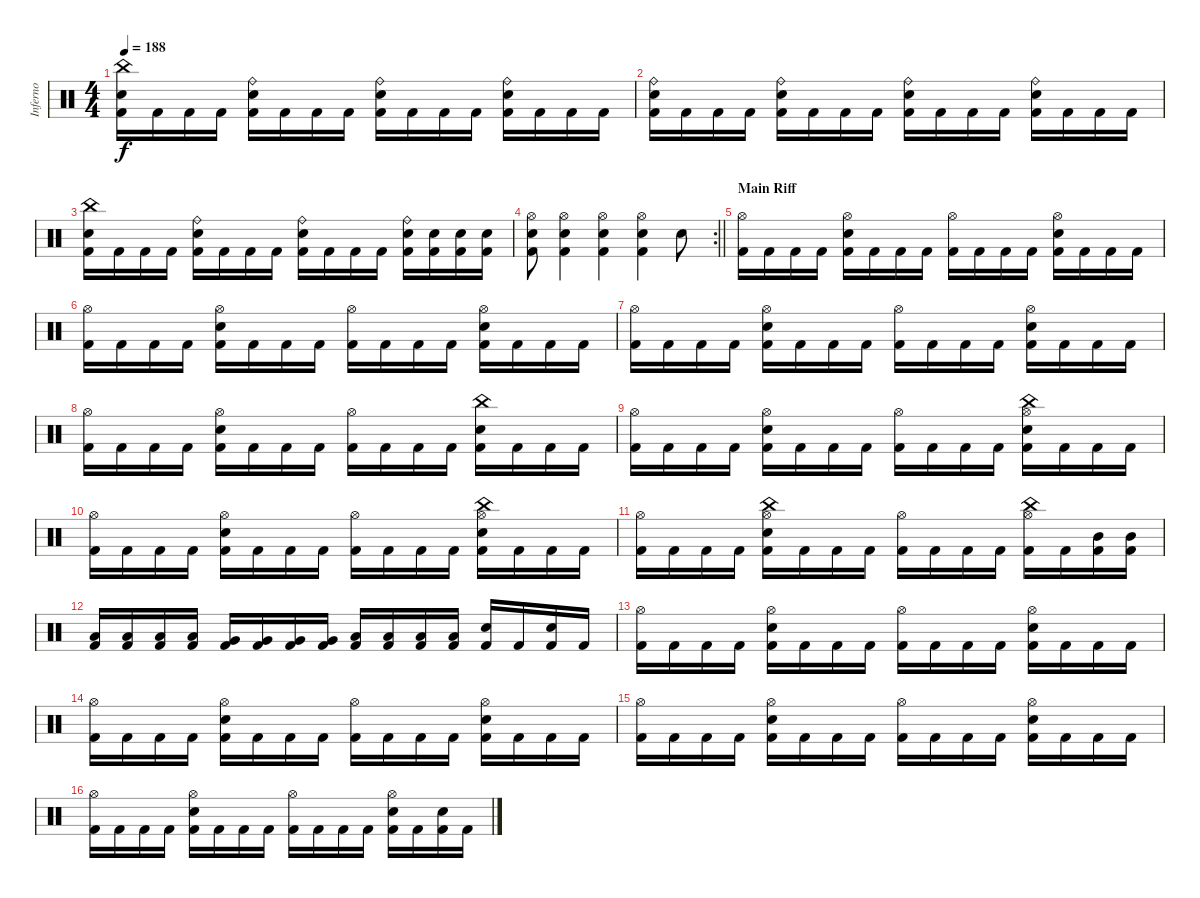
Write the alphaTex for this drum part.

\track ("Inferno" "Inferno") {instrument percussion}
\staff {score}
\articulation defaults
\ts (4 4)
\tempo 188
\clef neutral
\ks c
("China (hit)" "Snare (hit) 2" "Kick (hit) 2").16{dy f} "Kick (hit) 2".16 "Kick (hit) 2".16 "Kick (hit) 2".16 ("Ride (bell)" "Snare (hit) 2" "Kick (hit) 2").16 "Kick (hit) 2".16 "Kick (hit) 2".16 "Kick (hit) 2".16 ("Ride (bell)" "Snare (hit) 2" "Kick (hit) 2").16 "Kick (hit) 2".16 "Kick (hit) 2".16 "Kick (hit) 2".16 ("Ride (bell)" "Snare (hit) 2" "Kick (hit) 2").16 "Kick (hit) 2".16 "Kick (hit) 2".16 "Kick (hit) 2".16 |
("Ride (bell)" "Snare (hit) 2" "Kick (hit) 2").16 "Kick (hit) 2".16 "Kick (hit) 2".16 "Kick (hit) 2".16 ("Ride (bell)" "Snare (hit) 2" "Kick (hit) 2").16 "Kick (hit) 2".16 "Kick (hit) 2".16 "Kick (hit) 2".16 ("Ride (bell)" "Snare (hit) 2" "Kick (hit) 2").16 "Kick (hit) 2".16 "Kick (hit) 2".16 "Kick (hit) 2".16 ("Ride (bell)" "Snare (hit) 2" "Kick (hit) 2").16 "Kick (hit) 2".16 "Kick (hit) 2".16 "Kick (hit) 2".16 |
("China (hit)" "Snare (hit) 2" "Kick (hit) 2").16 "Kick (hit) 2".16 "Kick (hit) 2".16 "Kick (hit) 2".16 ("Ride (bell)" "Snare (hit) 2" "Kick (hit) 2").16 "Kick (hit) 2".16 "Kick (hit) 2".16 "Kick (hit) 2".16 ("Ride (bell)" "Snare (hit) 2" "Kick (hit) 2").16 "Kick (hit) 2".16 "Kick (hit) 2".16 "Kick (hit) 2".16 ("Ride (bell)" "Snare (hit) 2" "Kick (hit) 2").16 ("Snare (hit) 2" "Kick (hit) 2").16 ("Snare (hit) 2" "Kick (hit) 2").16 ("Snare (hit) 2" "Kick (hit) 2").16 |
\rc 2
\barLineRight lightlight
("Hi-Hat (open)" "Snare (hit) 2" "Kick (hit) 2").8 ("Hi-Hat (open)" "Snare (hit) 2" "Kick (hit) 2").4 ("Hi-Hat (open)" "Snare (hit) 2" "Kick (hit) 2").4 ("Hi-Hat (open)" "Snare (hit) 2" "Kick (hit) 2").4 "Snare (hit) 2".8 |
\section ("" "Main Riff")
("Hi-Hat (open)" "Kick (hit) 2").16 "Kick (hit) 2".16 "Kick (hit) 2".16 "Kick (hit) 2".16 ("Hi-Hat (open)" "Snare (hit) 2" "Kick (hit) 2").16 "Kick (hit) 2".16 "Kick (hit) 2".16 "Kick (hit) 2".16 ("Hi-Hat (open)" "Kick (hit) 2").16 "Kick (hit) 2".16 "Kick (hit) 2".16 "Kick (hit) 2".16 ("Hi-Hat (open)" "Snare (hit) 2" "Kick (hit) 2").16 "Kick (hit) 2".16 "Kick (hit) 2".16 "Kick (hit) 2".16 |
("Hi-Hat (open)" "Kick (hit) 2").16 "Kick (hit) 2".16 "Kick (hit) 2".16 "Kick (hit) 2".16 ("Hi-Hat (open)" "Snare (hit) 2" "Kick (hit) 2").16 "Kick (hit) 2".16 "Kick (hit) 2".16 "Kick (hit) 2".16 ("Hi-Hat (open)" "Kick (hit) 2").16 "Kick (hit) 2".16 "Kick (hit) 2".16 "Kick (hit) 2".16 ("Hi-Hat (open)" "Snare (hit) 2" "Kick (hit) 2").16 "Kick (hit) 2".16 "Kick (hit) 2".16 "Kick (hit) 2".16 |
("Hi-Hat (open)" "Kick (hit) 2").16 "Kick (hit) 2".16 "Kick (hit) 2".16 "Kick (hit) 2".16 ("Hi-Hat (open)" "Snare (hit) 2" "Kick (hit) 2").16 "Kick (hit) 2".16 "Kick (hit) 2".16 "Kick (hit) 2".16 ("Hi-Hat (open)" "Kick (hit) 2").16 "Kick (hit) 2".16 "Kick (hit) 2".16 "Kick (hit) 2".16 ("Hi-Hat (open)" "Snare (hit) 2" "Kick (hit) 2").16 "Kick (hit) 2".16 "Kick (hit) 2".16 "Kick (hit) 2".16 |
("Hi-Hat (open)" "Kick (hit) 2").16 "Kick (hit) 2".16 "Kick (hit) 2".16 "Kick (hit) 2".16 ("Hi-Hat (open)" "Snare (hit) 2" "Kick (hit) 2").16 "Kick (hit) 2".16 "Kick (hit) 2".16 "Kick (hit) 2".16 ("Hi-Hat (open)" "Kick (hit) 2").16 "Kick (hit) 2".16 "Kick (hit) 2".16 "Kick (hit) 2".16 ("China (hit)" "Snare (hit) 2" "Kick (hit) 2").16 "Kick (hit) 2".16 "Kick (hit) 2".16 "Kick (hit) 2".16 |
("Hi-Hat (open)" "Kick (hit) 2").16 "Kick (hit) 2".16 "Kick (hit) 2".16 "Kick (hit) 2".16 ("Hi-Hat (open)" "Snare (hit) 2" "Kick (hit) 2").16 "Kick (hit) 2".16 "Kick (hit) 2".16 "Kick (hit) 2".16 ("Hi-Hat (open)" "Kick (hit) 2").16 "Kick (hit) 2".16 "Kick (hit) 2".16 "Kick (hit) 2".16 ("China (hit)" "Hi-Hat (open)" "Snare (hit) 2" "Kick (hit) 2").16 "Kick (hit) 2".16 "Kick (hit) 2".16 "Kick (hit) 2".16 |
("Hi-Hat (open)" "Kick (hit) 2").16 "Kick (hit) 2".16 "Kick (hit) 2".16 "Kick (hit) 2".16 ("Hi-Hat (open)" "Snare (hit) 2" "Kick (hit) 2").16 "Kick (hit) 2".16 "Kick (hit) 2".16 "Kick (hit) 2".16 ("Hi-Hat (open)" "Kick (hit) 2").16 "Kick (hit) 2".16 "Kick (hit) 2".16 "Kick (hit) 2".16 ("China (hit)" "Hi-Hat (open)" "Snare (hit) 2" "Kick (hit) 2").16 "Kick (hit) 2".16 "Kick (hit) 2".16 "Kick (hit) 2".16 |
("Hi-Hat (open)" "Kick (hit) 2").16 "Kick (hit) 2".16 "Kick (hit) 2".16 "Kick (hit) 2".16 ("China (hit)" "Hi-Hat (open)" "Snare (hit) 2" "Kick (hit) 2").16 "Kick (hit) 2".16 "Kick (hit) 2".16 "Kick (hit) 2".16 ("Hi-Hat (open)" "Kick (hit) 2").16 "Kick (hit) 2".16 "Kick (hit) 2".16 "Kick (hit) 2".16 ("China (hit)" "Hi-Hat (open)" "Kick (hit) 2").16 "Kick (hit) 2".16 ("Mid Tom (hit)" "Kick (hit) 2").16 ("Mid Tom (hit)" "Kick (hit) 2").16 |
("Low Tom (hit)" "Kick (hit) 2").16 ("Low Tom (hit)" "Kick (hit) 2").16 ("Low Tom (hit)" "Kick (hit) 2").16 ("Low Tom (hit)" "Kick (hit) 2").16 ("Very Low Tom (hit)" "Kick (hit) 2").16 ("Very Low Tom (hit)" "Kick (hit) 2").16 ("Very Low Tom (hit)" "Kick (hit) 2").16 ("Very Low Tom (hit)" "Kick (hit) 2").16 ("Low Floor Tom (hit)" "Kick (hit) 2").16 ("Low Floor Tom (hit)" "Kick (hit) 2").16 ("Low Floor Tom (hit)" "Kick (hit) 2").16 ("Low Floor Tom (hit)" "Kick (hit) 2").16 ("Snare (hit) 2" "Kick (hit) 2").16 "Kick (hit) 2".16 ("Snare (hit) 2" "Kick (hit) 2").16 "Kick (hit) 2".16 |
("Hi-Hat (open)" "Kick (hit) 2").16 "Kick (hit) 2".16 "Kick (hit) 2".16 "Kick (hit) 2".16 ("Hi-Hat (open)" "Snare (hit) 2" "Kick (hit) 2").16 "Kick (hit) 2".16 "Kick (hit) 2".16 "Kick (hit) 2".16 ("Hi-Hat (open)" "Kick (hit) 2").16 "Kick (hit) 2".16 "Kick (hit) 2".16 "Kick (hit) 2".16 ("Hi-Hat (open)" "Snare (hit) 2" "Kick (hit) 2").16 "Kick (hit) 2".16 "Kick (hit) 2".16 "Kick (hit) 2".16 |
("Hi-Hat (open)" "Kick (hit) 2").16 "Kick (hit) 2".16 "Kick (hit) 2".16 "Kick (hit) 2".16 ("Hi-Hat (open)" "Snare (hit) 2" "Kick (hit) 2").16 "Kick (hit) 2".16 "Kick (hit) 2".16 "Kick (hit) 2".16 ("Hi-Hat (open)" "Kick (hit) 2").16 "Kick (hit) 2".16 "Kick (hit) 2".16 "Kick (hit) 2".16 ("Hi-Hat (open)" "Snare (hit) 2" "Kick (hit) 2").16 "Kick (hit) 2".16 "Kick (hit) 2".16 "Kick (hit) 2".16 |
("Hi-Hat (open)" "Kick (hit) 2").16 "Kick (hit) 2".16 "Kick (hit) 2".16 "Kick (hit) 2".16 ("Hi-Hat (open)" "Snare (hit) 2" "Kick (hit) 2").16 "Kick (hit) 2".16 "Kick (hit) 2".16 "Kick (hit) 2".16 ("Hi-Hat (open)" "Kick (hit) 2").16 "Kick (hit) 2".16 "Kick (hit) 2".16 "Kick (hit) 2".16 ("Hi-Hat (open)" "Snare (hit) 2" "Kick (hit) 2").16 "Kick (hit) 2".16 "Kick (hit) 2".16 "Kick (hit) 2".16 |
("Hi-Hat (open)" "Kick (hit) 2").16 "Kick (hit) 2".16 "Kick (hit) 2".16 "Kick (hit) 2".16 ("Hi-Hat (open)" "Snare (hit) 2" "Kick (hit) 2").16 "Kick (hit) 2".16 "Kick (hit) 2".16 "Kick (hit) 2".16 ("Hi-Hat (open)" "Kick (hit) 2").16 "Kick (hit) 2".16 "Kick (hit) 2".16 "Kick (hit) 2".16 ("Hi-Hat (open)" "Snare (hit) 2" "Kick (hit) 2").16 "Kick (hit) 2".16 ("Snare (hit) 2" "Kick (hit) 2").16 "Kick (hit) 2".16
